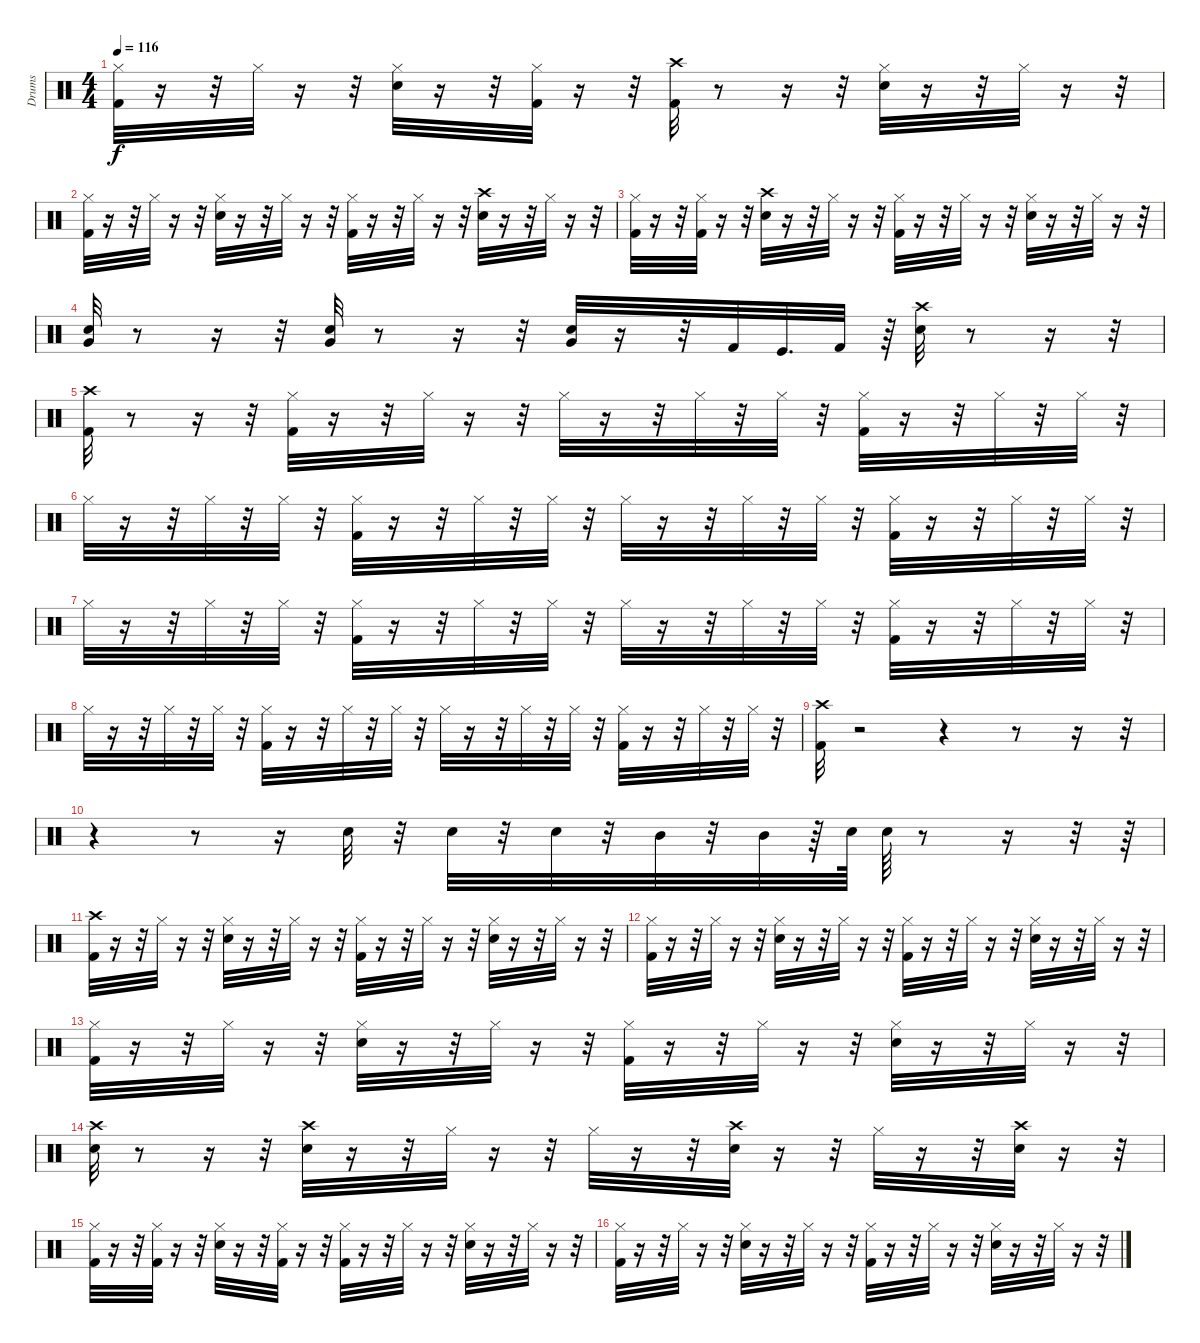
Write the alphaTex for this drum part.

\track ("Drums" "Drums") {instrument percussion}
\staff {score}
\articulation defaults
\ts (4 4)
\tempo 116
\clef neutral
\ks c
("Kick (hit) 2" "Hi-Hat (closed)").32{dy f} r.16 r.32 "Hi-Hat (closed)".32 r.16 r.32 ("Snare (hit) 2" "Hi-Hat (closed)").32 r.16 r.32 ("Kick (hit) 2" "Hi-Hat (closed)").32 r.16 r.32 ("Crash high (hit)" "Kick (hit) 2").32 r.8 r.16 r.32 ("Hi-Hat (closed)" "Snare (hit) 2").32 r.16 r.32 "Hi-Hat (closed)".32 r.16 r.32 |
("Kick (hit) 2" "Hi-Hat (closed)").32 r.16 r.32 "Hi-Hat (closed)".32 r.16 r.32 ("Snare (hit) 2" "Hi-Hat (closed)").32 r.16 r.32 "Hi-Hat (closed)".32 r.16 r.32 ("Hi-Hat (closed)" "Kick (hit) 2").32 r.16 r.32 "Hi-Hat (closed)".32 r.16 r.32 ("Crash high (hit)" "Snare (hit) 2").32 r.16 r.32 "Hi-Hat (closed)".32 r.16 r.32 |
("Hi-Hat (closed)" "Kick (hit) 2").32 r.16 r.32 ("Hi-Hat (closed)" "Kick (hit) 2").32 r.16 r.32 ("Crash high (hit)" "Snare (hit) 2").32 r.16 r.32 "Hi-Hat (closed)".32 r.16 r.32 ("Kick (hit) 2" "Hi-Hat (closed)").32 r.16 r.32 "Hi-Hat (closed)".32 r.16 r.32 ("Hi-Hat (closed)" "Snare (hit) 2").32 r.16 r.32 "Hi-Hat (closed)".32 r.16 r.32 |
("Very Low Tom (hit)" "Snare (hit) 2").32 r.8 r.16 r.32 ("Very Low Tom (hit)" "Snare (hit) 2").32 r.8 r.16 r.32 ("Very Low Tom (hit)" "Snare (hit) 2").32 r.16 r.32 "Kick (hit) 2".32 "Kick (hit)".32{d} "Kick (hit) 2".32 r.64 ("Crash high (hit)" "Snare (hit) 2").32 r.8 r.16 r.32 |
("Kick (hit) 2" "Crash high (hit)").32 r.8 r.16 r.32 ("Hi-Hat (closed)" "Kick (hit) 2").32 r.16 r.32 "Hi-Hat (closed)".32 r.16 r.32 "Hi-Hat (closed)".32 r.16 r.32 "Hi-Hat (closed)".32 r.32 "Hi-Hat (closed)".32 r.32 ("Hi-Hat (closed)" "Kick (hit) 2").32 r.16 r.32 "Hi-Hat (closed)".32 r.32 "Hi-Hat (closed)".32 r.32 |
"Hi-Hat (closed)".32 r.16 r.32 "Hi-Hat (closed)".32 r.32 "Hi-Hat (closed)".32 r.32 ("Kick (hit) 2" "Hi-Hat (closed)").32 r.16 r.32 "Hi-Hat (closed)".32 r.32 "Hi-Hat (closed)".32 r.32 "Hi-Hat (closed)".32 r.16 r.32 "Hi-Hat (closed)".32 r.32 "Hi-Hat (closed)".32 r.32 ("Kick (hit) 2" "Hi-Hat (closed)").32 r.16 r.32 "Hi-Hat (closed)".32 r.32 "Hi-Hat (closed)".32 r.32 |
"Hi-Hat (closed)".32 r.16 r.32 "Hi-Hat (closed)".32 r.32 "Hi-Hat (closed)".32 r.32 ("Kick (hit) 2" "Hi-Hat (closed)").32 r.16 r.32 "Hi-Hat (closed)".32 r.32 "Hi-Hat (closed)".32 r.32 "Hi-Hat (closed)".32 r.16 r.32 "Hi-Hat (closed)".32 r.32 "Hi-Hat (closed)".32 r.32 ("Kick (hit) 2" "Hi-Hat (closed)").32 r.16 r.32 "Hi-Hat (closed)".32 r.32 "Hi-Hat (closed)".32 r.32 |
"Hi-Hat (closed)".32 r.16 r.32 "Hi-Hat (closed)".32 r.32 "Hi-Hat (closed)".32 r.32 ("Kick (hit) 2" "Hi-Hat (closed)").32 r.16 r.32 "Hi-Hat (closed)".32 r.32 "Hi-Hat (closed)".32 r.32 "Hi-Hat (closed)".32 r.16 r.32 "Hi-Hat (closed)".32 r.32 "Hi-Hat (closed)".32 r.32 ("Kick (hit) 2" "Hi-Hat (closed)").32 r.16 r.32 "Hi-Hat (closed)".32 r.32 "Hi-Hat (closed)".32 r.32 |
("Kick (hit) 2" "Crash high (hit)").32 r.2 r.4 r.8 r.16 r.32 |
r.4 r.8 r.16 "Snare (hit) 2".32 r.32 "Snare (hit) 2".32 r.32 "Snare (hit) 2".32 r.32 "Mid Tom (hit)".32 r.32 "Mid Tom (hit)".32 r.64 "Snare (hit) 2".64 "Snare (hit) 2".64 r.8 r.16 r.32 r.64 |
("Kick (hit) 2" "Crash high (hit)").32 r.16 r.32 "Hi-Hat (closed)".32 r.16 r.32 ("Snare (hit) 2" "Hi-Hat (closed)").32 r.16 r.32 "Hi-Hat (closed)".32 r.16 r.32 ("Hi-Hat (closed)" "Kick (hit) 2").32 r.16 r.32 "Hi-Hat (closed)".32 r.16 r.32 ("Snare (hit) 2" "Hi-Hat (closed)").32 r.16 r.32 "Hi-Hat (closed)".32 r.16 r.32 |
("Kick (hit) 2" "Hi-Hat (closed)").32 r.16 r.32 "Hi-Hat (closed)".32 r.16 r.32 ("Snare (hit) 2" "Hi-Hat (closed)").32 r.16 r.32 "Hi-Hat (closed)".32 r.16 r.32 ("Kick (hit) 2" "Hi-Hat (closed)").32 r.16 r.32 "Hi-Hat (closed)".32 r.16 r.32 ("Snare (hit) 2" "Hi-Hat (closed)").32 r.16 r.32 "Hi-Hat (closed)".32 r.16 r.32 |
("Kick (hit) 2" "Hi-Hat (closed)").32 r.16 r.32 "Hi-Hat (closed)".32 r.16 r.32 ("Snare (hit) 2" "Hi-Hat (closed)").32 r.16 r.32 "Hi-Hat (closed)".32 r.16 r.32 ("Kick (hit) 2" "Hi-Hat (closed)").32 r.16 r.32 "Hi-Hat (closed)".32 r.16 r.32 ("Snare (hit) 2" "Hi-Hat (closed)").32 r.16 r.32 "Hi-Hat (closed)".32 r.16 r.32 |
("Snare (hit) 2" "Crash high (hit)").32 r.8 r.16 r.32 ("Crash high (hit)" "Snare (hit) 2").32 r.16 r.32 "Hi-Hat (closed)".32 r.16 r.32 "Hi-Hat (closed)".32 r.16 r.32 ("Crash high (hit)" "Snare (hit) 2").32 r.16 r.32 "Hi-Hat (closed)".32 r.16 r.32 ("Crash high (hit)" "Snare (hit) 2").32 r.16 r.32 |
("Kick (hit) 2" "Hi-Hat (closed)").32 r.16 r.32 ("Kick (hit) 2" "Hi-Hat (closed)").32 r.16 r.32 ("Snare (hit) 2" "Hi-Hat (closed)").32 r.16 r.32 ("Kick (hit) 2" "Hi-Hat (closed)").32 r.16 r.32 ("Hi-Hat (closed)" "Kick (hit) 2").32 r.16 r.32 "Hi-Hat (closed)".32 r.16 r.32 ("Snare (hit) 2" "Hi-Hat (closed)").32 r.16 r.32 "Hi-Hat (closed)".32 r.16 r.32 |
("Kick (hit) 2" "Hi-Hat (closed)").32 r.16 r.32 "Hi-Hat (closed)".32 r.16 r.32 ("Snare (hit) 2" "Hi-Hat (closed)").32 r.16 r.32 "Hi-Hat (closed)".32 r.16 r.32 ("Kick (hit) 2" "Hi-Hat (closed)").32 r.16 r.32 "Hi-Hat (closed)".32 r.16 r.32 ("Snare (hit) 2" "Hi-Hat (closed)").32 r.16 r.32 "Hi-Hat (closed)".32 r.16 r.32
